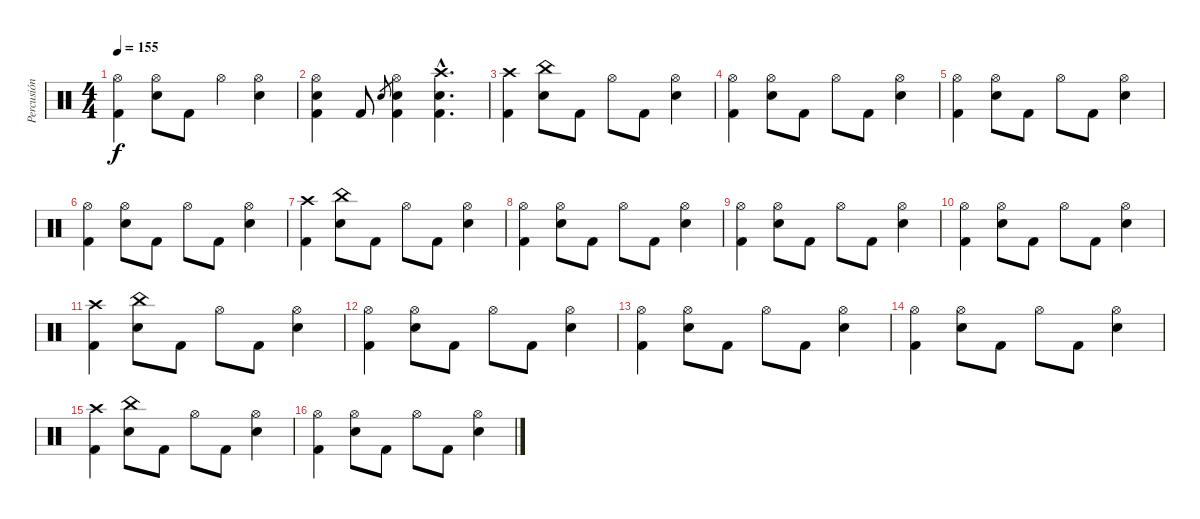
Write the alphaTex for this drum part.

\track ("Percusión" "Percusión") {instrument percussion}
\staff {score}
\articulation defaults
\ts (4 4)
\tempo 155
\clef neutral
\ks c
("Hi-Hat (open)" "Kick (hit) 2").4{dy f} ("Hi-Hat (open)" "Electric Snare (hit)").8 "Kick (hit) 2".8 "Hi-Hat (open)".4 ("Hi-Hat (open)" "Electric Snare (hit)").4 |
("Hi-Hat (open)" "Electric Snare (hit)" "Kick (hit) 2").4 "Kick (hit) 2".8 "Electric Snare (hit)".8{gr} ("Hi-Hat (open)" "Electric Snare (hit)" "Kick (hit) 2").4 ("Crash high (hit)"{hac} "Electric Snare (hit)"{hac} "Kick (hit) 2"{hac}).4{d} |
("Crash high (hit)" "Kick (hit) 2").4 ("China (hit)" "Electric Snare (hit)").8 "Kick (hit) 2".8 "Hi-Hat (open)".8 "Kick (hit) 2".8 ("Hi-Hat (open)" "Electric Snare (hit)").4 |
("Hi-Hat (open)" "Kick (hit) 2").4 ("Hi-Hat (open)" "Electric Snare (hit)").8 "Kick (hit) 2".8 "Hi-Hat (open)".8 "Kick (hit) 2".8 ("Hi-Hat (open)" "Electric Snare (hit)").4 |
("Hi-Hat (open)" "Kick (hit) 2").4 ("Hi-Hat (open)" "Electric Snare (hit)").8 "Kick (hit) 2".8 "Hi-Hat (open)".8 "Kick (hit) 2".8 ("Hi-Hat (open)" "Electric Snare (hit)").4 |
("Hi-Hat (open)" "Kick (hit) 2").4 ("Hi-Hat (open)" "Electric Snare (hit)").8 "Kick (hit) 2".8 "Hi-Hat (open)".8 "Kick (hit) 2".8 ("Hi-Hat (open)" "Electric Snare (hit)").4 |
("Crash high (hit)" "Kick (hit) 2").4 ("China (hit)" "Electric Snare (hit)").8 "Kick (hit) 2".8 "Hi-Hat (open)".8 "Kick (hit) 2".8 ("Hi-Hat (open)" "Electric Snare (hit)").4 |
("Hi-Hat (open)" "Kick (hit) 2").4 ("Hi-Hat (open)" "Electric Snare (hit)").8 "Kick (hit) 2".8 "Hi-Hat (open)".8 "Kick (hit) 2".8 ("Hi-Hat (open)" "Electric Snare (hit)").4 |
("Hi-Hat (open)" "Kick (hit) 2").4 ("Hi-Hat (open)" "Electric Snare (hit)").8 "Kick (hit) 2".8 "Hi-Hat (open)".8 "Kick (hit) 2".8 ("Hi-Hat (open)" "Electric Snare (hit)").4 |
("Hi-Hat (open)" "Kick (hit) 2").4 ("Hi-Hat (open)" "Electric Snare (hit)").8 "Kick (hit) 2".8 "Hi-Hat (open)".8 "Kick (hit) 2".8 ("Hi-Hat (open)" "Electric Snare (hit)").4 |
("Crash high (hit)" "Kick (hit) 2").4 ("China (hit)" "Electric Snare (hit)").8 "Kick (hit) 2".8 "Hi-Hat (open)".8 "Kick (hit) 2".8 ("Hi-Hat (open)" "Electric Snare (hit)").4 |
("Hi-Hat (open)" "Kick (hit) 2").4 ("Hi-Hat (open)" "Electric Snare (hit)").8 "Kick (hit) 2".8 "Hi-Hat (open)".8 "Kick (hit) 2".8 ("Hi-Hat (open)" "Electric Snare (hit)").4 |
("Hi-Hat (open)" "Kick (hit) 2").4 ("Hi-Hat (open)" "Electric Snare (hit)").8 "Kick (hit) 2".8 "Hi-Hat (open)".8 "Kick (hit) 2".8 ("Hi-Hat (open)" "Electric Snare (hit)").4 |
("Hi-Hat (open)" "Kick (hit) 2").4 ("Hi-Hat (open)" "Electric Snare (hit)").8 "Kick (hit) 2".8 "Hi-Hat (open)".8 "Kick (hit) 2".8 ("Hi-Hat (open)" "Electric Snare (hit)").4 |
("Crash high (hit)" "Kick (hit) 2").4 ("China (hit)" "Electric Snare (hit)").8 "Kick (hit) 2".8 "Hi-Hat (open)".8 "Kick (hit) 2".8 ("Hi-Hat (open)" "Electric Snare (hit)").4 |
("Hi-Hat (open)" "Kick (hit) 2").4 ("Hi-Hat (open)" "Electric Snare (hit)").8 "Kick (hit) 2".8 "Hi-Hat (open)".8 "Kick (hit) 2".8 ("Hi-Hat (open)" "Electric Snare (hit)").4
